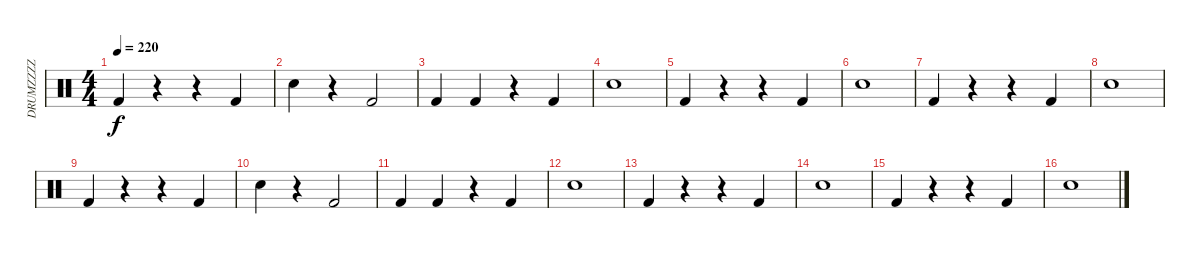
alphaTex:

\track ("DRUMZZZZ" "DRUMZZZZ") {instrument percussion}
\staff {score}
\articulation defaults
\ts (4 4)
\tempo 220
\clef neutral
\ks c "Kick (hit) 2".4{dy f}
r.4 r.4 "Kick (hit) 2".4 |
"Snare (hit) 2".4 r.4 "Kick (hit) 2".2 |
"Kick (hit) 2".4 "Kick (hit) 2".4 r.4 "Kick (hit) 2".4 |
"Snare (hit) 2".1 |
"Kick (hit) 2".4 r.4 r.4 "Kick (hit) 2".4 |
"Snare (hit) 2".1 |
"Kick (hit) 2".4 r.4 r.4 "Kick (hit) 2".4 |
"Snare (hit) 2".1 |
"Kick (hit) 2".4 r.4 r.4 "Kick (hit) 2".4 |
"Snare (hit) 2".4 r.4 "Kick (hit) 2".2 |
"Kick (hit) 2".4 "Kick (hit) 2".4 r.4 "Kick (hit) 2".4 |
"Snare (hit) 2".1 |
"Kick (hit) 2".4 r.4 r.4 "Kick (hit) 2".4 |
"Snare (hit) 2".1 |
"Kick (hit) 2".4 r.4 r.4 "Kick (hit) 2".4 |
"Snare (hit) 2".1
